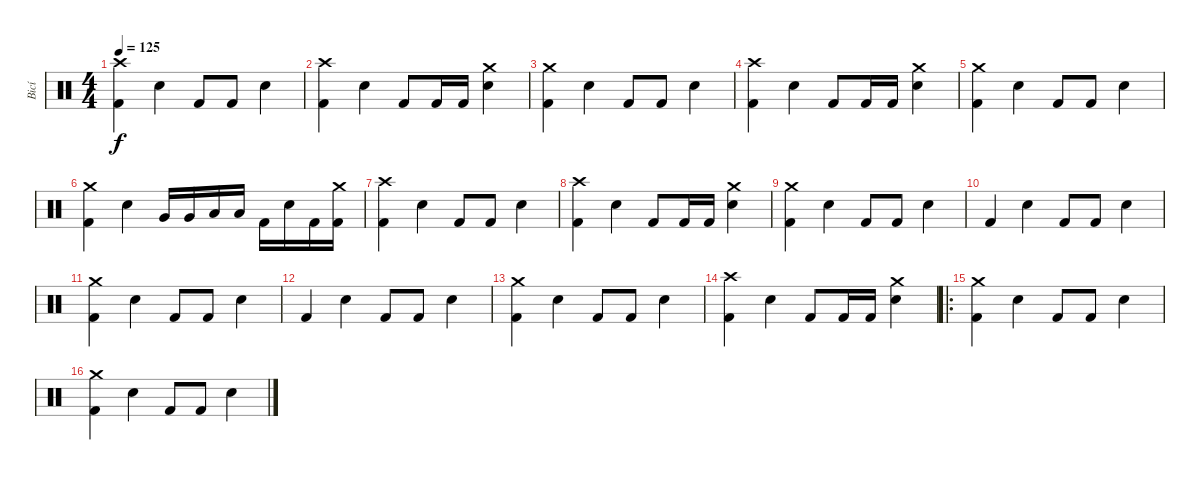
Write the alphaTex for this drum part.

\track ("Bicí" "Bicí") {instrument percussion}
\staff {score}
\articulation defaults
\ts (4 4)
\tempo 125
\clef neutral
\ks c
("Crash high (hit)" "Kick (hit) 2").4{dy f} "Electric Snare (hit)".4 "Kick (hit) 2".8 "Kick (hit) 2".8 "Electric Snare (hit)".4 |
("Crash high (hit)" "Kick (hit) 2").4 "Electric Snare (hit)".4 "Kick (hit) 2".8 "Kick (hit) 2".16 "Kick (hit) 2".16 ("Crash medium (hit)" "Electric Snare (hit)").4 |
("Crash medium (hit)" "Kick (hit) 2").4 "Electric Snare (hit)".4 "Kick (hit) 2".8 "Kick (hit) 2".8 "Electric Snare (hit)".4 |
("Crash high (hit)" "Kick (hit) 2").4 "Electric Snare (hit)".4 "Kick (hit) 2".8 "Kick (hit) 2".16 "Kick (hit) 2".16 ("Crash medium (hit)" "Electric Snare (hit)").4 |
("Crash medium (hit)" "Kick (hit) 2").4 "Electric Snare (hit)".4 "Kick (hit) 2".8 "Kick (hit) 2".8 "Electric Snare (hit)".4 |
("Crash medium (hit)" "Kick (hit) 2").4 "Electric Snare (hit)".4 "Very Low Tom (hit)".16 "Very Low Tom (hit)".16 "Low Floor Tom (hit)".16 "Low Floor Tom (hit)".16 "Kick (hit) 2".16 "Electric Snare (hit)".16 "Kick (hit) 2".16 ("Crash medium (hit)" "Kick (hit) 2").16 |
("Crash high (hit)" "Kick (hit) 2").4 "Electric Snare (hit)".4 "Kick (hit) 2".8 "Kick (hit) 2".8 "Electric Snare (hit)".4 |
("Crash high (hit)" "Kick (hit) 2").4 "Electric Snare (hit)".4 "Kick (hit) 2".8 "Kick (hit) 2".16 "Kick (hit) 2".16 ("Crash medium (hit)" "Electric Snare (hit)").4 |
("Crash medium (hit)" "Kick (hit) 2").4 "Electric Snare (hit)".4 "Kick (hit) 2".8 "Kick (hit) 2".8 "Electric Snare (hit)".4 |
"Kick (hit) 2".4 "Electric Snare (hit)".4 "Kick (hit) 2".8 "Kick (hit) 2".8 "Electric Snare (hit)".4 |
("Crash medium (hit)" "Kick (hit) 2").4 "Electric Snare (hit)".4 "Kick (hit) 2".8 "Kick (hit) 2".8 "Electric Snare (hit)".4 |
"Kick (hit) 2".4 "Electric Snare (hit)".4 "Kick (hit) 2".8 "Kick (hit) 2".8 "Electric Snare (hit)".4 |
("Crash medium (hit)" "Kick (hit) 2").4 "Electric Snare (hit)".4 "Kick (hit) 2".8 "Kick (hit) 2".8 "Electric Snare (hit)".4 |
("Crash high (hit)" "Kick (hit) 2").4 "Electric Snare (hit)".4 "Kick (hit) 2".8 "Kick (hit) 2".16 "Kick (hit) 2".16 ("Crash medium (hit)" "Electric Snare (hit)").4 |
\ro
("Crash medium (hit)" "Kick (hit) 2").4 "Electric Snare (hit)".4 "Kick (hit) 2".8 "Kick (hit) 2".8 "Electric Snare (hit)".4 |
("Crash medium (hit)" "Kick (hit) 2").4 "Electric Snare (hit)".4 "Kick (hit) 2".8 "Kick (hit) 2".8 "Electric Snare (hit)".4
